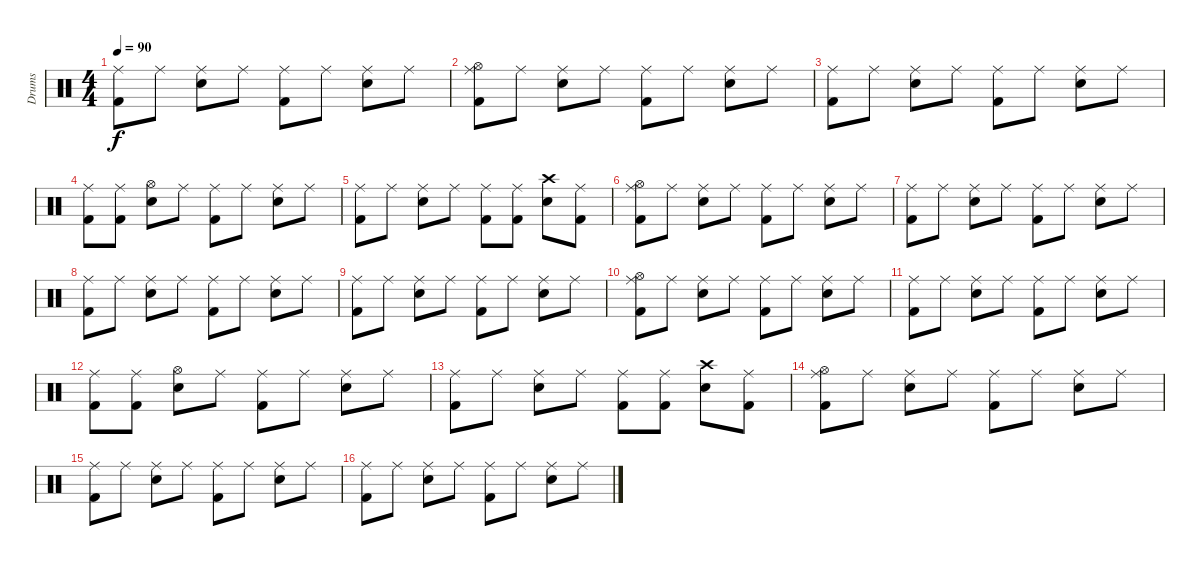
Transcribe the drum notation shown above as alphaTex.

\track ("Drums" "Drums") {instrument percussion}
\staff {score}
\articulation defaults
\ts (4 4)
\tempo 90
\clef neutral
\ks c
("Ride (middle)" "Kick (hit) 2").8{dy f} "Ride (middle)".8 ("Ride (middle)" "Snare (hit) 2").8 "Ride (middle)".8 ("Ride (middle)" "Kick (hit) 2").8 "Ride (middle)".8 ("Ride (middle)" "Snare (hit) 2").8 "Ride (middle)".8 |
("Hi-Hat (open)" "Ride (middle)" "Kick (hit) 2").8 "Ride (middle)".8 ("Ride (middle)" "Snare (hit) 2").8 "Ride (middle)".8 ("Ride (middle)" "Kick (hit) 2").8 "Ride (middle)".8 ("Ride (middle)" "Snare (hit) 2").8 "Ride (middle)".8 |
("Ride (middle)" "Kick (hit) 2").8 "Ride (middle)".8 ("Ride (middle)" "Snare (hit) 2").8 "Ride (middle)".8 ("Ride (middle)" "Kick (hit) 2").8 "Ride (middle)".8 ("Ride (middle)" "Snare (hit) 2").8 "Ride (middle)".8 |
("Ride (middle)" "Kick (hit) 2").8 ("Ride (middle)" "Kick (hit) 2").8 ("Hi-Hat (open)" "Snare (hit) 2").8 "Ride (middle)".8 ("Ride (middle)" "Kick (hit) 2").8 "Ride (middle)".8 ("Ride (middle)" "Snare (hit) 2").8 "Ride (middle)".8 |
("Ride (middle)" "Kick (hit) 2").8 "Ride (middle)".8 ("Ride (middle)" "Snare (hit) 2").8 "Ride (middle)".8 ("Ride (middle)" "Kick (hit) 2").8 ("Ride (middle)" "Kick (hit) 2").8 ("Crash high (hit)" "Snare (hit) 2").8 ("Ride (middle)" "Kick (hit) 2").8 |
("Hi-Hat (open)" "Ride (middle)" "Kick (hit) 2").8 "Ride (middle)".8 ("Ride (middle)" "Snare (hit) 2").8 "Ride (middle)".8 ("Ride (middle)" "Kick (hit) 2").8 "Ride (middle)".8 ("Ride (middle)" "Snare (hit) 2").8 "Ride (middle)".8 |
("Ride (middle)" "Kick (hit) 2").8 "Ride (middle)".8 ("Ride (middle)" "Snare (hit) 2").8 "Ride (middle)".8 ("Ride (middle)" "Kick (hit) 2").8 "Ride (middle)".8 ("Ride (middle)" "Snare (hit) 2").8 "Ride (middle)".8 |
("Ride (middle)" "Kick (hit) 2").8 "Ride (middle)".8 ("Ride (middle)" "Snare (hit) 2").8 "Ride (middle)".8 ("Ride (middle)" "Kick (hit) 2").8 "Ride (middle)".8 ("Ride (middle)" "Snare (hit) 2").8 "Ride (middle)".8 |
("Ride (middle)" "Kick (hit) 2").8 "Ride (middle)".8 ("Ride (middle)" "Snare (hit) 2").8 "Ride (middle)".8 ("Ride (middle)" "Kick (hit) 2").8 "Ride (middle)".8 ("Ride (middle)" "Snare (hit) 2").8 "Ride (middle)".8 |
("Hi-Hat (open)" "Ride (middle)" "Kick (hit) 2").8 "Ride (middle)".8 ("Ride (middle)" "Snare (hit) 2").8 "Ride (middle)".8 ("Ride (middle)" "Kick (hit) 2").8 "Ride (middle)".8 ("Ride (middle)" "Snare (hit) 2").8 "Ride (middle)".8 |
("Ride (middle)" "Kick (hit) 2").8 "Ride (middle)".8 ("Ride (middle)" "Snare (hit) 2").8 "Ride (middle)".8 ("Ride (middle)" "Kick (hit) 2").8 "Ride (middle)".8 ("Ride (middle)" "Snare (hit) 2").8 "Ride (middle)".8 |
("Ride (middle)" "Kick (hit) 2").8 ("Ride (middle)" "Kick (hit) 2").8 ("Hi-Hat (open)" "Snare (hit) 2").8 "Ride (middle)".8 ("Ride (middle)" "Kick (hit) 2").8 "Ride (middle)".8 ("Ride (middle)" "Snare (hit) 2").8 "Ride (middle)".8 |
("Ride (middle)" "Kick (hit) 2").8 "Ride (middle)".8 ("Ride (middle)" "Snare (hit) 2").8 "Ride (middle)".8 ("Ride (middle)" "Kick (hit) 2").8 ("Ride (middle)" "Kick (hit) 2").8 ("Crash high (hit)" "Snare (hit) 2").8 ("Ride (middle)" "Kick (hit) 2").8 |
("Hi-Hat (open)" "Ride (middle)" "Kick (hit) 2").8 "Ride (middle)".8 ("Ride (middle)" "Snare (hit) 2").8 "Ride (middle)".8 ("Ride (middle)" "Kick (hit) 2").8 "Ride (middle)".8 ("Ride (middle)" "Snare (hit) 2").8 "Ride (middle)".8 |
("Ride (middle)" "Kick (hit) 2").8 "Ride (middle)".8 ("Ride (middle)" "Snare (hit) 2").8 "Ride (middle)".8 ("Ride (middle)" "Kick (hit) 2").8 "Ride (middle)".8 ("Ride (middle)" "Snare (hit) 2").8 "Ride (middle)".8 |
("Ride (middle)" "Kick (hit) 2").8 "Ride (middle)".8 ("Ride (middle)" "Snare (hit) 2").8 "Ride (middle)".8 ("Ride (middle)" "Kick (hit) 2").8 "Ride (middle)".8 ("Ride (middle)" "Snare (hit) 2").8 "Ride (middle)".8
